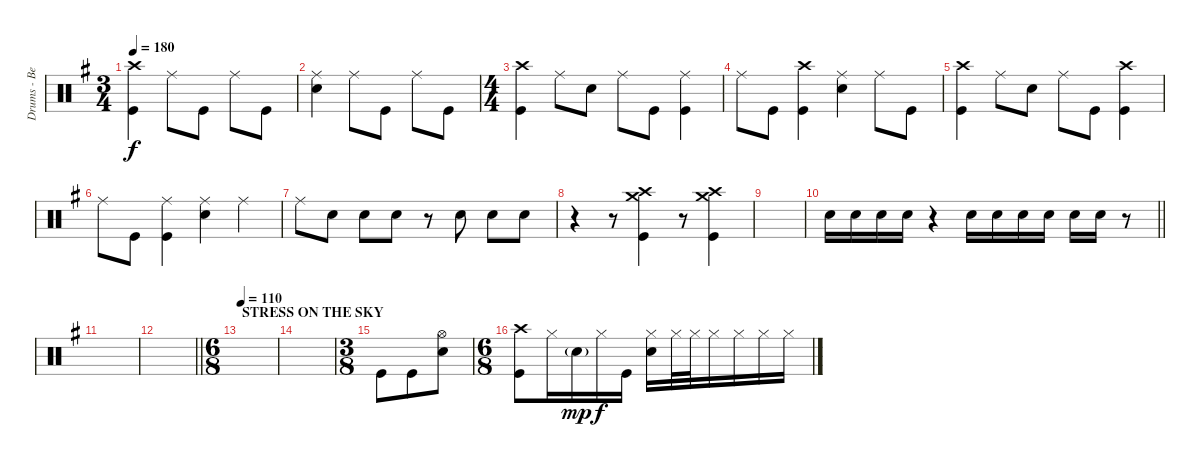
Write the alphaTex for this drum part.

\track ("Drums - Ben Johnston" "Drums - Be") {instrument percussion}
\staff {score}
\articulation defaults
\ts (3 4)
\tempo 180
\clef neutral
\ks eminor
("Crash high (hit)" "Kick (hit)").4{dy f} "Ride (middle)".8 "Kick (hit)".8 "Ride (middle)".8 "Kick (hit)".8 |
("Ride (middle)" "Snare (hit) 2").4 "Ride (middle)".8 "Kick (hit)".8 "Ride (middle)".8 "Kick (hit)".8 |
\ts (4 4)
("Crash high (hit)" "Kick (hit)").4 "Ride (middle)".8 "Snare (hit) 2".8 "Ride (middle)".8 "Kick (hit)".8 ("Ride (middle)" "Kick (hit)").4 |
"Ride (middle)".8 "Kick (hit)".8 ("Crash high (hit)" "Kick (hit)").4 ("Ride (middle)" "Snare (hit) 2").4 "Ride (middle)".8 "Kick (hit)".8 |
("Crash high (hit)" "Kick (hit)").4 "Ride (middle)".8 "Snare (hit) 2".8 "Ride (middle)".8 "Kick (hit)".8 ("Crash high (hit)" "Kick (hit)").4 |
"Ride (middle)".8 "Kick (hit)".8 ("Ride (middle)" "Kick (hit)").4 ("Ride (middle)" "Snare (hit) 2").4 "Ride (middle)".4 |
"Ride (middle)".8 "Snare (hit) 2".8 "Snare (hit) 2".8 "Snare (hit) 2".8 r.8 "Snare (hit) 2".8 "Snare (hit) 2".8 "Snare (hit) 2".8 |
r.4 r.8 ("Crash high (hit)" "Crash medium (hit)" "Kick (hit)").4 r.8 ("Crash high (hit)" "Crash medium (hit)" "Kick (hit)").4 |
|
\barLineRight lightlight "Snare (hit) 2".16 "Snare (hit) 2".16 "Snare (hit) 2".16 "Snare (hit) 2".16
r.4 "Snare (hit) 2".16 "Snare (hit) 2".16 "Snare (hit) 2".16 "Snare (hit) 2".16 "Snare (hit) 2".16 "Snare (hit) 2".16 r.8 |
|
\barLineRight lightlight
|
\ts (6 8)
\section ("" "STRESS ON THE SKY")
\tempo 110
\ks g
|
|
\ts (3 8)
"Kick (hit)".8 "Kick (hit)".8 ("Hi-Hat (open)" "Snare (hit) 2").8 |
\ts (6 8)
("Crash high (hit)" "Kick (hit)").8 "Hi-Hat (closed)".16 "Snare (hit) 2"{g}.16{dy mp} "Hi-Hat (closed)".16{dy f} "Kick (hit)".16 ("Hi-Hat (closed)" "Snare (hit) 2").16 "Hi-Hat (closed)".32 "Hi-Hat (closed)".32 "Hi-Hat (closed)".16 "Hi-Hat (closed)".16 "Hi-Hat (closed)".16 "Hi-Hat (closed)".16
